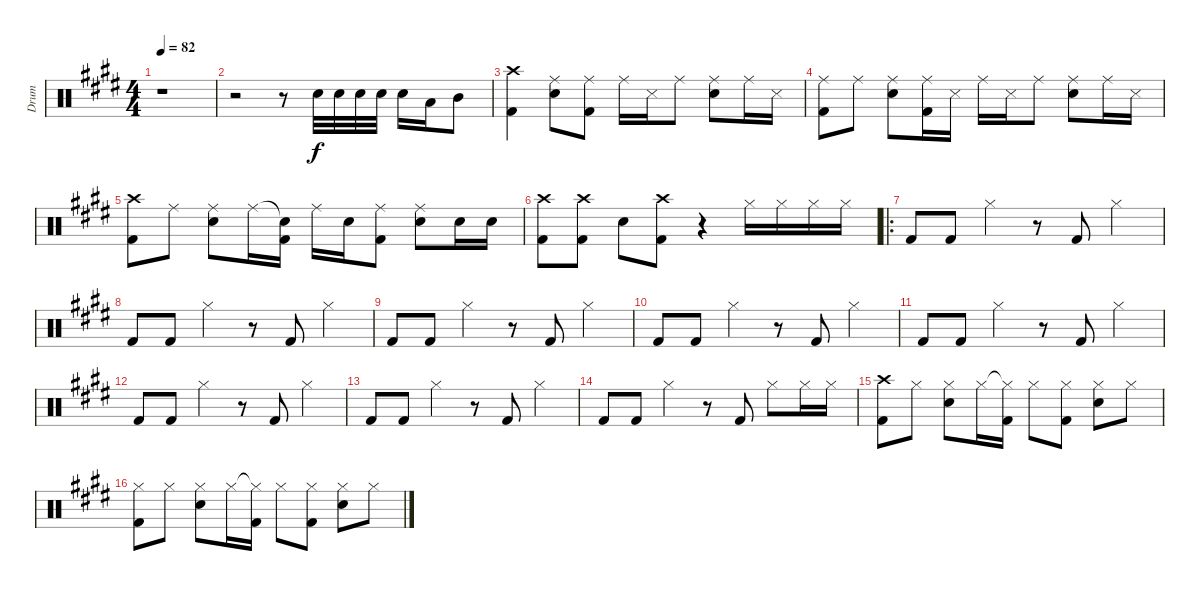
\track ("Drum" "Drum") {instrument percussion}
\staff {score}
\articulation defaults
\ts (4 4)
\tempo 82
\clef neutral
\ks e
r.1{dy f} |
r.2 r.8 "Snare (hit) 2".32 "Snare (hit) 2".32 "Snare (hit) 2".32 "Snare (hit) 2".32 "Snare (hit) 2".16 "Low Tom (hit)".16 "Mid Tom (hit)".8 |
("Crash high (hit)" "Kick (hit) 2").4 ("Ride (middle)" "Snare (hit) 2").8 ("Ride (middle)" "Kick (hit) 2").8 "Ride (middle)".16 "Snare (side stick) 3".16 "Ride (middle)".8 ("Ride (middle)" "Snare (hit) 2").8 "Ride (middle)".16 "Snare (side stick) 3".16 |
("Ride (middle)" "Kick (hit) 2").8 "Ride (middle)".8 ("Ride (middle)" "Snare (hit) 2").8 ("Ride (middle)" "Kick (hit) 2").16 "Snare (side stick) 3".16 "Ride (middle)".16 "Snare (side stick) 3".16 "Ride (middle)".8 ("Ride (middle)" "Snare (hit) 2").8 "Ride (middle)".16 "Snare (side stick) 3".16 |
("Crash high (hit)" "Kick (hit) 2").8 "Ride (middle)".8 ("Ride (middle)" "Snare (hit) 2").8 "Ride (middle)".16 ("Snare (hit)"{t} "Kick (hit) 2").16 "Ride (middle)".16 "Snare (hit) 2".16 ("Ride (middle)" "Kick (hit) 2").8 ("Ride (middle)" "Snare (hit) 2").8 "Snare (hit) 2".16 "Snare (hit) 2".16 |
("Crash high (hit)" "Kick (hit) 2").8 ("Crash high (hit)" "Kick (hit) 2").8 "Snare (hit) 2".8 ("Crash high (hit)" "Kick (hit) 2").8 r.4 "Hi-Hat (closed)".16 "Hi-Hat (closed)".16 "Hi-Hat (closed)".16 "Hi-Hat (closed)".16 |
\ro "Kick (hit) 2".8 "Kick (hit) 2".8 "Hi-Hat (closed)".4
r.8 "Kick (hit) 2".8 "Hi-Hat (closed)".4 |
"Kick (hit) 2".8 "Kick (hit) 2".8 "Hi-Hat (closed)".4 r.8 "Kick (hit) 2".8 "Hi-Hat (closed)".4 |
"Kick (hit) 2".8 "Kick (hit) 2".8 "Hi-Hat (closed)".4 r.8 "Kick (hit) 2".8 "Hi-Hat (closed)".4 |
"Kick (hit) 2".8 "Kick (hit) 2".8 "Hi-Hat (closed)".4 r.8 "Kick (hit) 2".8 "Hi-Hat (closed)".4 |
"Kick (hit) 2".8 "Kick (hit) 2".8 "Hi-Hat (closed)".4 r.8 "Kick (hit) 2".8 "Hi-Hat (closed)".4 |
"Kick (hit) 2".8 "Kick (hit) 2".8 "Hi-Hat (closed)".4 r.8 "Kick (hit) 2".8 "Hi-Hat (closed)".4 |
"Kick (hit) 2".8 "Kick (hit) 2".8 "Hi-Hat (closed)".4 r.8 "Kick (hit) 2".8 "Hi-Hat (closed)".4 |
"Kick (hit) 2".8 "Kick (hit) 2".8 "Hi-Hat (closed)".4 r.8 "Kick (hit) 2".8 "Hi-Hat (closed)".8 "Hi-Hat (closed)".16 "Hi-Hat (closed)".16 |
("Crash high (hit)" "Kick (hit) 2").8 "Hi-Hat (closed)".8 ("Hi-Hat (closed)" "Snare (hit) 2").8 "Hi-Hat (closed)".16 ("Hi-Hat (closed)"{t} "Kick (hit) 2").16 "Hi-Hat (closed)".8 ("Hi-Hat (closed)" "Kick (hit) 2").8 ("Hi-Hat (closed)" "Snare (hit) 2").8 "Hi-Hat (closed)".8 |
("Hi-Hat (closed)" "Kick (hit) 2").8 "Hi-Hat (closed)".8 ("Hi-Hat (closed)" "Snare (hit) 2").8 "Hi-Hat (closed)".16 ("Hi-Hat (closed)"{t} "Kick (hit) 2").16 "Hi-Hat (closed)".8 ("Hi-Hat (closed)" "Kick (hit) 2").8 ("Hi-Hat (closed)" "Snare (hit) 2").8 "Hi-Hat (closed)".8
